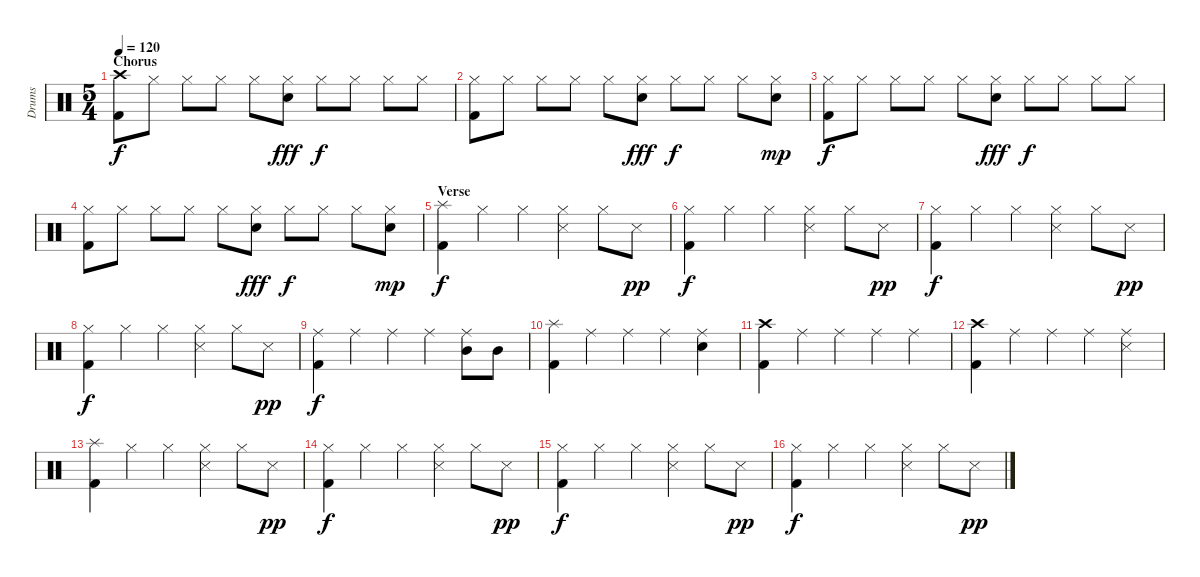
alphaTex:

\track ("Drums" "Drums") {instrument percussion}
\staff {score}
\articulation defaults
\ts (5 4)
\section ("" "Chorus")
\tempo 120
\clef neutral
\ks c
("Crash high (hit)" "Kick (hit) 2").8{dy f} "Hi-Hat (closed)".8 "Hi-Hat (closed)".8 "Hi-Hat (closed)".8 "Hi-Hat (closed)".8 ("Hi-Hat (closed)" "Electric Snare (hit)").8{dy fff} "Hi-Hat (closed)".8{dy f} "Hi-Hat (closed)".8 "Hi-Hat (closed)".8 "Hi-Hat (closed)".8 |
("Hi-Hat (closed)" "Kick (hit) 2").8 "Hi-Hat (closed)".8 "Hi-Hat (closed)".8 "Hi-Hat (closed)".8 "Hi-Hat (closed)".8 ("Hi-Hat (closed)" "Electric Snare (hit)").8{dy fff} "Hi-Hat (closed)".8{dy f} "Hi-Hat (closed)".8 "Hi-Hat (closed)".8 ("Hi-Hat (closed)" "Electric Snare (hit)").8{dy mp} |
("Hi-Hat (closed)" "Kick (hit) 2").8{dy f} "Hi-Hat (closed)".8 "Hi-Hat (closed)".8 "Hi-Hat (closed)".8 "Hi-Hat (closed)".8 ("Hi-Hat (closed)" "Electric Snare (hit)").8{dy fff} "Hi-Hat (closed)".8{dy f} "Hi-Hat (closed)".8 "Hi-Hat (closed)".8 "Hi-Hat (closed)".8 |
("Hi-Hat (closed)" "Kick (hit) 2").8 "Hi-Hat (closed)".8 "Hi-Hat (closed)".8 "Hi-Hat (closed)".8 "Hi-Hat (closed)".8 ("Hi-Hat (closed)" "Electric Snare (hit)").8{dy fff} "Hi-Hat (closed)".8{dy f} "Hi-Hat (closed)".8 "Hi-Hat (closed)".8 ("Hi-Hat (closed)" "Electric Snare (hit)").8{dy mp} |
\section ("" "Verse")
("Splash (hit)" "Kick (hit) 2").4{dy f} "Hi-Hat (closed)".4 "Hi-Hat (closed)".4 ("Hi-Hat (closed)" "Snare (side stick) 3").4 "Hi-Hat (closed)".8 "Snare (side stick) 3".8{dy pp} |
("Hi-Hat (closed)" "Kick (hit) 2").4{dy f} "Hi-Hat (closed)".4 "Hi-Hat (closed)".4 ("Hi-Hat (closed)" "Snare (side stick) 3").4 "Hi-Hat (closed)".8 "Snare (side stick) 3".8{dy pp} |
("Hi-Hat (closed)" "Kick (hit) 2").4{dy f} "Hi-Hat (closed)".4 "Hi-Hat (closed)".4 ("Hi-Hat (closed)" "Snare (side stick) 3").4 "Hi-Hat (closed)".8 "Snare (side stick) 3".8{dy pp} |
("Hi-Hat (closed)" "Kick (hit) 2").4{dy f} "Hi-Hat (closed)".4 "Hi-Hat (closed)".4 ("Hi-Hat (closed)" "Snare (side stick) 3").4 "Hi-Hat (closed)".8 "Snare (side stick) 3".8{dy pp} |
("Ride (middle)" "Kick (hit) 2").4{dy f} "Ride (middle)".4 "Ride (middle)".4 "Ride (middle)".4 ("Ride (middle)" "Mid Tom (hit)").8 "Mid Tom (hit)".8 |
("Splash (hit)" "Kick (hit) 2").4 "Ride (middle)".4 "Ride (middle)".4 "Ride (middle)".4 ("Ride (middle)" "Electric Snare (hit)").4 |
("Crash high (hit)" "Kick (hit) 2").4 "Ride (middle)".4 "Ride (middle)".4 "Ride (middle)".4 "Ride (middle)".4 |
("Crash high (hit)" "Kick (hit) 2").4 "Ride (middle)".4 "Ride (middle)".4 "Ride (middle)".4 ("Ride (middle)" "Snare (side stick) 3").4 |
("Splash (hit)" "Kick (hit) 2").4 "Hi-Hat (closed)".4 "Hi-Hat (closed)".4 ("Hi-Hat (closed)" "Snare (side stick) 3").4 "Hi-Hat (closed)".8 "Snare (side stick) 3".8{dy pp} |
("Hi-Hat (closed)" "Kick (hit) 2").4{dy f} "Hi-Hat (closed)".4 "Hi-Hat (closed)".4 ("Hi-Hat (closed)" "Snare (side stick) 3").4 "Hi-Hat (closed)".8 "Snare (side stick) 3".8{dy pp} |
("Hi-Hat (closed)" "Kick (hit) 2").4{dy f} "Hi-Hat (closed)".4 "Hi-Hat (closed)".4 ("Hi-Hat (closed)" "Snare (side stick) 3").4 "Hi-Hat (closed)".8 "Snare (side stick) 3".8{dy pp} |
("Hi-Hat (closed)" "Kick (hit) 2").4{dy f} "Hi-Hat (closed)".4 "Hi-Hat (closed)".4 ("Hi-Hat (closed)" "Snare (side stick) 3").4 "Hi-Hat (closed)".8 "Snare (side stick) 3".8{dy pp}
